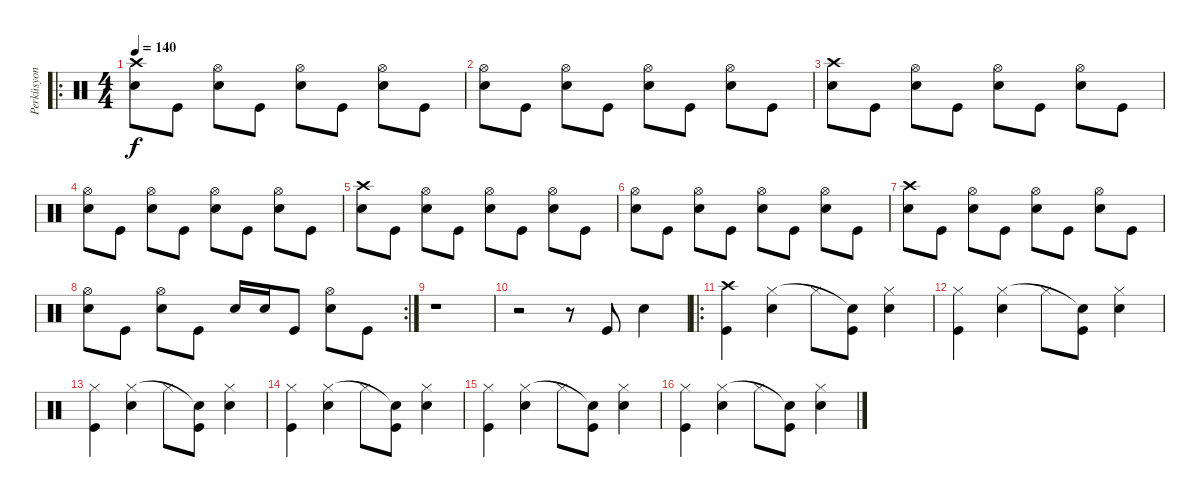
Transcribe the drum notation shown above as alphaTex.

\track ("Perküsyon" "Perküsyon") {instrument percussion}
\staff {score}
\articulation defaults
\ro
\ts (4 4)
\tempo 140
\clef neutral
\ks c
("Electric Snare (hit)" "Crash high (hit)").8{dy f} "Kick (hit)".8 ("Electric Snare (hit)" "Hi-Hat (open)").8 "Kick (hit)".8 ("Electric Snare (hit)" "Hi-Hat (open)").8 "Kick (hit)".8 ("Electric Snare (hit)" "Hi-Hat (open)").8 "Kick (hit)".8 |
("Electric Snare (hit)" "Hi-Hat (open)").8 "Kick (hit)".8 ("Electric Snare (hit)" "Hi-Hat (open)").8 "Kick (hit)".8 ("Electric Snare (hit)" "Hi-Hat (open)").8 "Kick (hit)".8 ("Electric Snare (hit)" "Hi-Hat (open)").8 "Kick (hit)".8 |
("Electric Snare (hit)" "Crash high (hit)").8 "Kick (hit)".8 ("Electric Snare (hit)" "Hi-Hat (open)").8 "Kick (hit)".8 ("Electric Snare (hit)" "Hi-Hat (open)").8 "Kick (hit)".8 ("Electric Snare (hit)" "Hi-Hat (open)").8 "Kick (hit)".8 |
("Electric Snare (hit)" "Hi-Hat (open)").8 "Kick (hit)".8 ("Electric Snare (hit)" "Hi-Hat (open)").8 "Kick (hit)".8 ("Electric Snare (hit)" "Hi-Hat (open)").8 "Kick (hit)".8 ("Electric Snare (hit)" "Hi-Hat (open)").8 "Kick (hit)".8 |
("Electric Snare (hit)" "Crash high (hit)").8 "Kick (hit)".8 ("Electric Snare (hit)" "Hi-Hat (open)").8 "Kick (hit)".8 ("Electric Snare (hit)" "Hi-Hat (open)").8 "Kick (hit)".8 ("Electric Snare (hit)" "Hi-Hat (open)").8 "Kick (hit)".8 |
("Electric Snare (hit)" "Hi-Hat (open)").8 "Kick (hit)".8 ("Electric Snare (hit)" "Hi-Hat (open)").8 "Kick (hit)".8 ("Electric Snare (hit)" "Hi-Hat (open)").8 "Kick (hit)".8 ("Electric Snare (hit)" "Hi-Hat (open)").8 "Kick (hit)".8 |
("Electric Snare (hit)" "Crash high (hit)").8 "Kick (hit)".8 ("Electric Snare (hit)" "Hi-Hat (open)").8 "Kick (hit)".8 ("Electric Snare (hit)" "Hi-Hat (open)").8 "Kick (hit)".8 ("Electric Snare (hit)" "Hi-Hat (open)").8 "Kick (hit)".8 |
\rc 2
("Electric Snare (hit)" "Hi-Hat (open)").8 "Kick (hit)".8 ("Electric Snare (hit)" "Hi-Hat (open)").8 "Kick (hit)".8 "Electric Snare (hit)".16 "Electric Snare (hit)".16 "Kick (hit)".8 ("Electric Snare (hit)" "Hi-Hat (open)").8 "Kick (hit)".8 |
r.1 |
r.2 r.8 "Kick (hit)".8 "Electric Snare (hit)".4 |
\ro
("Kick (hit)" "Crash high (hit)").4 ("Electric Snare (hit)" "Hi-Hat (closed)").4 "Hi-Hat (closed)".8 ("Kick (hit)" "Snare (hit)"{t}).8 ("Electric Snare (hit)" "Hi-Hat (closed)").4 |
("Kick (hit)" "Hi-Hat (closed)").4 ("Electric Snare (hit)" "Hi-Hat (closed)").4 "Hi-Hat (closed)".8 ("Kick (hit)" "Snare (hit)"{t}).8 ("Electric Snare (hit)" "Hi-Hat (closed)").4 |
("Kick (hit)" "Hi-Hat (closed)").4 ("Electric Snare (hit)" "Hi-Hat (closed)").4 "Hi-Hat (closed)".8 ("Kick (hit)" "Snare (hit)"{t}).8 ("Electric Snare (hit)" "Hi-Hat (closed)").4 |
("Kick (hit)" "Hi-Hat (closed)").4 ("Electric Snare (hit)" "Hi-Hat (closed)").4 "Hi-Hat (closed)".8 ("Kick (hit)" "Snare (hit)"{t}).8 ("Electric Snare (hit)" "Hi-Hat (closed)").4 |
("Kick (hit)" "Hi-Hat (closed)").4 ("Electric Snare (hit)" "Hi-Hat (closed)").4 "Hi-Hat (closed)".8 ("Kick (hit)" "Snare (hit)"{t}).8 ("Electric Snare (hit)" "Hi-Hat (closed)").4 |
("Kick (hit)" "Hi-Hat (closed)").4 ("Electric Snare (hit)" "Hi-Hat (closed)").4 "Hi-Hat (closed)".8 ("Kick (hit)" "Snare (hit)"{t}).8 ("Electric Snare (hit)" "Hi-Hat (closed)").4
